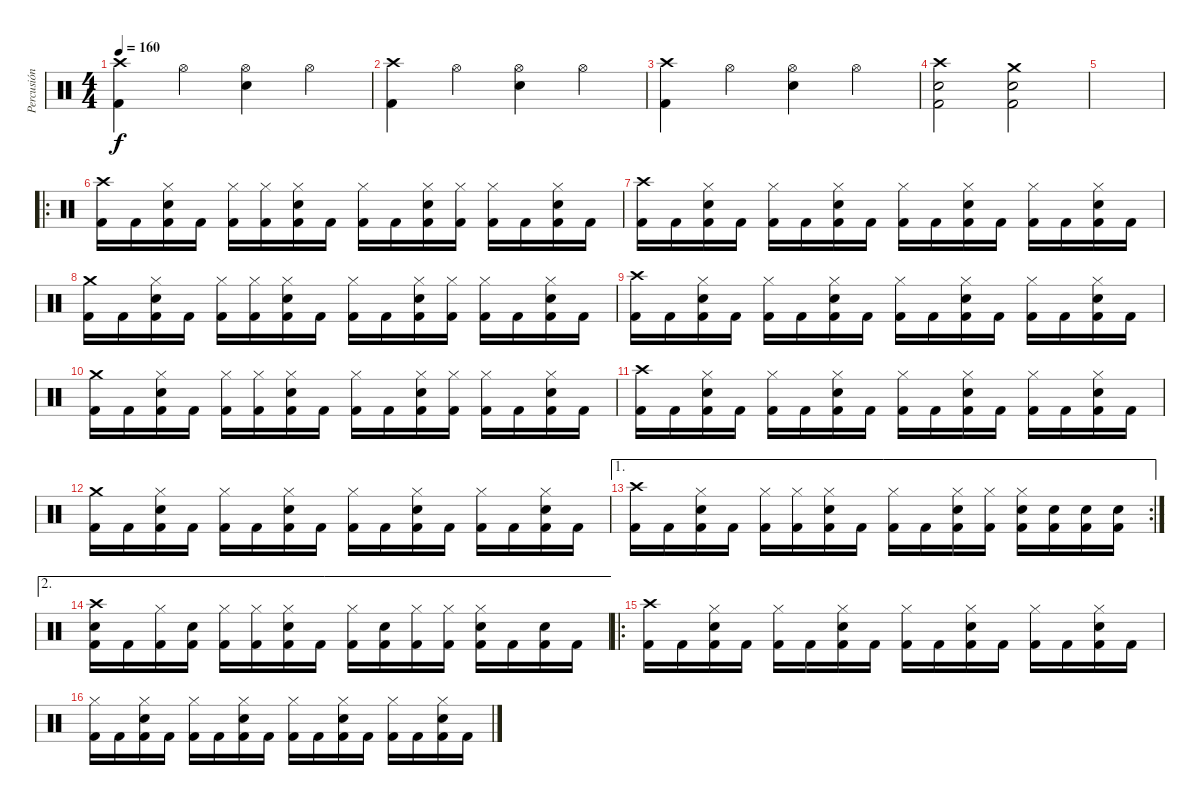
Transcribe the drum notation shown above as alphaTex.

\track ("Percusión" "Percusión") {instrument percussion}
\staff {score}
\articulation defaults
\ts (4 4)
\tempo 160
\clef neutral
\ks c
("Crash high (hit)" "Kick (hit) 2").4{dy f} "Hi-Hat (open)".4 ("Hi-Hat (open)" "Snare (hit) 2").4 "Hi-Hat (open)".4 |
("Crash high (hit)" "Kick (hit) 2").4 "Hi-Hat (open)".4 ("Hi-Hat (open)" "Snare (hit) 2").4 "Hi-Hat (open)".4 |
("Crash high (hit)" "Kick (hit) 2").4 "Hi-Hat (open)".4 ("Hi-Hat (open)" "Snare (hit) 2").4 "Hi-Hat (open)".4 |
("Kick (hit) 2" "Snare (hit) 2" "Crash high (hit)").2 ("Kick (hit) 2" "Snare (hit) 2" "Crash medium (hit)").2 |
|
\ro
("Kick (hit) 2" "Crash high (hit)").16 "Kick (hit) 2".16 ("Kick (hit) 2" "Snare (hit) 2" "Hi-Hat (closed)").16 "Kick (hit) 2".16 ("Kick (hit) 2" "Hi-Hat (closed)").16 ("Kick (hit) 2" "Hi-Hat (closed)").16 ("Kick (hit) 2" "Snare (hit) 2" "Hi-Hat (closed)").16 "Kick (hit) 2".16 ("Kick (hit) 2" "Hi-Hat (closed)").16 "Kick (hit) 2".16 ("Kick (hit) 2" "Snare (hit) 2" "Hi-Hat (closed)").16 ("Kick (hit) 2" "Hi-Hat (closed)").16 ("Kick (hit) 2" "Hi-Hat (closed)").16 "Kick (hit) 2".16 ("Kick (hit) 2" "Snare (hit) 2" "Hi-Hat (closed)").16 "Kick (hit) 2".16 |
("Kick (hit) 2" "Crash high (hit)").16 "Kick (hit) 2".16 ("Kick (hit) 2" "Snare (hit) 2" "Hi-Hat (closed)").16 "Kick (hit) 2".16 ("Kick (hit) 2" "Hi-Hat (closed)").16 "Kick (hit) 2".16 ("Kick (hit) 2" "Snare (hit) 2" "Hi-Hat (closed)").16 "Kick (hit) 2".16 ("Kick (hit) 2" "Hi-Hat (closed)").16 "Kick (hit) 2".16 ("Kick (hit) 2" "Snare (hit) 2" "Hi-Hat (closed)").16 "Kick (hit) 2".16 ("Kick (hit) 2" "Hi-Hat (closed)").16 "Kick (hit) 2".16 ("Kick (hit) 2" "Snare (hit) 2" "Hi-Hat (closed)").16 "Kick (hit) 2".16 |
("Kick (hit) 2" "Crash medium (hit)").16 "Kick (hit) 2".16 ("Kick (hit) 2" "Snare (hit) 2" "Hi-Hat (closed)").16 "Kick (hit) 2".16 ("Kick (hit) 2" "Hi-Hat (closed)").16 ("Kick (hit) 2" "Hi-Hat (closed)").16 ("Kick (hit) 2" "Snare (hit) 2" "Hi-Hat (closed)").16 "Kick (hit) 2".16 ("Kick (hit) 2" "Hi-Hat (closed)").16 "Kick (hit) 2".16 ("Kick (hit) 2" "Snare (hit) 2" "Hi-Hat (closed)").16 ("Kick (hit) 2" "Hi-Hat (closed)").16 ("Kick (hit) 2" "Hi-Hat (closed)").16 "Kick (hit) 2".16 ("Kick (hit) 2" "Snare (hit) 2" "Hi-Hat (closed)").16 "Kick (hit) 2".16 |
("Kick (hit) 2" "Crash high (hit)").16 "Kick (hit) 2".16 ("Kick (hit) 2" "Snare (hit) 2" "Hi-Hat (closed)").16 "Kick (hit) 2".16 ("Kick (hit) 2" "Hi-Hat (closed)").16 "Kick (hit) 2".16 ("Kick (hit) 2" "Snare (hit) 2" "Hi-Hat (closed)").16 "Kick (hit) 2".16 ("Kick (hit) 2" "Hi-Hat (closed)").16 "Kick (hit) 2".16 ("Kick (hit) 2" "Snare (hit) 2" "Hi-Hat (closed)").16 "Kick (hit) 2".16 ("Kick (hit) 2" "Hi-Hat (closed)").16 "Kick (hit) 2".16 ("Kick (hit) 2" "Snare (hit) 2" "Hi-Hat (closed)").16 "Kick (hit) 2".16 |
("Kick (hit) 2" "Crash medium (hit)").16 "Kick (hit) 2".16 ("Kick (hit) 2" "Snare (hit) 2" "Hi-Hat (closed)").16 "Kick (hit) 2".16 ("Kick (hit) 2" "Hi-Hat (closed)").16 ("Kick (hit) 2" "Hi-Hat (closed)").16 ("Kick (hit) 2" "Snare (hit) 2" "Hi-Hat (closed)").16 "Kick (hit) 2".16 ("Kick (hit) 2" "Hi-Hat (closed)").16 "Kick (hit) 2".16 ("Kick (hit) 2" "Snare (hit) 2" "Hi-Hat (closed)").16 ("Kick (hit) 2" "Hi-Hat (closed)").16 ("Kick (hit) 2" "Hi-Hat (closed)").16 "Kick (hit) 2".16 ("Kick (hit) 2" "Snare (hit) 2" "Hi-Hat (closed)").16 "Kick (hit) 2".16 |
("Kick (hit) 2" "Crash high (hit)").16 "Kick (hit) 2".16 ("Kick (hit) 2" "Snare (hit) 2" "Hi-Hat (closed)").16 "Kick (hit) 2".16 ("Kick (hit) 2" "Hi-Hat (closed)").16 "Kick (hit) 2".16 ("Kick (hit) 2" "Snare (hit) 2" "Hi-Hat (closed)").16 "Kick (hit) 2".16 ("Kick (hit) 2" "Hi-Hat (closed)").16 "Kick (hit) 2".16 ("Kick (hit) 2" "Snare (hit) 2" "Hi-Hat (closed)").16 "Kick (hit) 2".16 ("Kick (hit) 2" "Hi-Hat (closed)").16 "Kick (hit) 2".16 ("Kick (hit) 2" "Snare (hit) 2" "Hi-Hat (closed)").16 "Kick (hit) 2".16 |
("Kick (hit) 2" "Crash medium (hit)").16 "Kick (hit) 2".16 ("Kick (hit) 2" "Snare (hit) 2" "Hi-Hat (closed)").16 "Kick (hit) 2".16 ("Kick (hit) 2" "Hi-Hat (closed)").16 "Kick (hit) 2".16 ("Kick (hit) 2" "Snare (hit) 2" "Hi-Hat (closed)").16 "Kick (hit) 2".16 ("Kick (hit) 2" "Hi-Hat (closed)").16 "Kick (hit) 2".16 ("Kick (hit) 2" "Snare (hit) 2" "Hi-Hat (closed)").16 "Kick (hit) 2".16 ("Kick (hit) 2" "Hi-Hat (closed)").16 "Kick (hit) 2".16 ("Kick (hit) 2" "Snare (hit) 2" "Hi-Hat (closed)").16 "Kick (hit) 2".16 |
\ae 1
\rc 2
("Kick (hit) 2" "Crash high (hit)").16 "Kick (hit) 2".16 ("Kick (hit) 2" "Snare (hit) 2" "Hi-Hat (closed)").16 "Kick (hit) 2".16 ("Kick (hit) 2" "Hi-Hat (closed)").16 ("Kick (hit) 2" "Hi-Hat (closed)").16 ("Kick (hit) 2" "Snare (hit) 2" "Hi-Hat (closed)").16 "Kick (hit) 2".16 ("Kick (hit) 2" "Hi-Hat (closed)").16 "Kick (hit) 2".16 ("Kick (hit) 2" "Snare (hit) 2" "Hi-Hat (closed)").16 ("Kick (hit) 2" "Hi-Hat (closed)").16 ("Kick (hit) 2" "Snare (hit) 2" "Hi-Hat (closed)").16 ("Kick (hit) 2" "Snare (hit) 2").16 ("Kick (hit) 2" "Snare (hit) 2").16 ("Kick (hit) 2" "Snare (hit) 2").16 |
\ae 2
("Kick (hit) 2" "Snare (hit) 2" "Crash high (hit)").16 "Kick (hit) 2".16 ("Kick (hit) 2" "Hi-Hat (closed)").16 ("Kick (hit) 2" "Snare (hit) 2").16 ("Kick (hit) 2" "Hi-Hat (closed)").16 ("Kick (hit) 2" "Hi-Hat (closed)").16 ("Kick (hit) 2" "Snare (hit) 2" "Hi-Hat (closed)").16 "Kick (hit) 2".16 ("Kick (hit) 2" "Hi-Hat (closed)").16 ("Kick (hit) 2" "Snare (hit) 2").16 ("Kick (hit) 2" "Hi-Hat (closed)").16 ("Kick (hit) 2" "Hi-Hat (closed)").16 ("Kick (hit) 2" "Snare (hit) 2" "Hi-Hat (closed)").16 "Kick (hit) 2".16 ("Kick (hit) 2" "Snare (hit) 2").16 "Kick (hit) 2".16 |
\ro
("Kick (hit) 2" "Crash high (hit)").16 "Kick (hit) 2".16 ("Kick (hit) 2" "Snare (hit) 2" "Hi-Hat (closed)").16 "Kick (hit) 2".16 ("Kick (hit) 2" "Hi-Hat (closed)").16 "Kick (hit) 2".16 ("Kick (hit) 2" "Snare (hit) 2" "Hi-Hat (closed)").16 "Kick (hit) 2".16 ("Kick (hit) 2" "Hi-Hat (closed)").16 "Kick (hit) 2".16 ("Kick (hit) 2" "Snare (hit) 2" "Hi-Hat (closed)").16 "Kick (hit) 2".16 ("Kick (hit) 2" "Hi-Hat (closed)").16 "Kick (hit) 2".16 ("Kick (hit) 2" "Snare (hit) 2" "Hi-Hat (closed)").16 "Kick (hit) 2".16 |
("Kick (hit) 2" "Hi-Hat (closed)").16 "Kick (hit) 2".16 ("Kick (hit) 2" "Snare (hit) 2" "Hi-Hat (closed)").16 "Kick (hit) 2".16 ("Kick (hit) 2" "Hi-Hat (closed)").16 "Kick (hit) 2".16 ("Kick (hit) 2" "Snare (hit) 2" "Hi-Hat (closed)").16 "Kick (hit) 2".16 ("Kick (hit) 2" "Hi-Hat (closed)").16 "Kick (hit) 2".16 ("Kick (hit) 2" "Snare (hit) 2" "Hi-Hat (closed)").16 "Kick (hit) 2".16 ("Kick (hit) 2" "Hi-Hat (closed)").16 "Kick (hit) 2".16 ("Kick (hit) 2" "Snare (hit) 2" "Hi-Hat (closed)").16 "Kick (hit) 2".16
